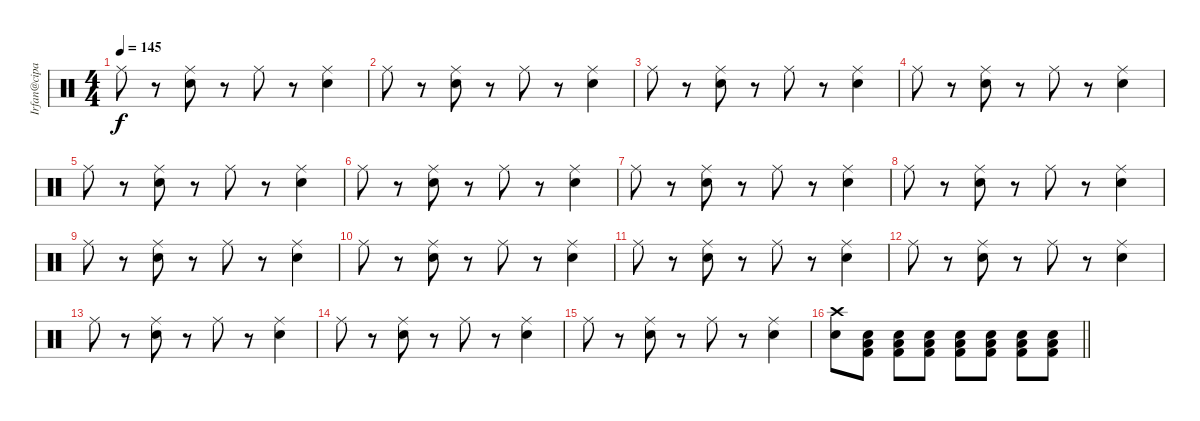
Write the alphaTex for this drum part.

\track ("Irfan@cipan 2" "Irfan@cipa") {instrument percussion}
\staff {score}
\articulation defaults
\ts (4 4)
\tempo 145
\clef neutral
\ks c "Ride (middle)".8{dy f}
r.8 ("Ride (middle)" "Electric Snare (hit)").8 r.8 "Ride (middle)".8 r.8 ("Ride (middle)" "Electric Snare (hit)").4 |
"Ride (middle)".8 r.8 ("Ride (middle)" "Electric Snare (hit)").8 r.8 "Ride (middle)".8 r.8 ("Ride (middle)" "Electric Snare (hit)").4 |
"Ride (middle)".8 r.8 ("Ride (middle)" "Electric Snare (hit)").8 r.8 "Ride (middle)".8 r.8 ("Ride (middle)" "Electric Snare (hit)").4 |
"Ride (middle)".8 r.8 ("Ride (middle)" "Electric Snare (hit)").8 r.8 "Ride (middle)".8 r.8 ("Ride (middle)" "Electric Snare (hit)").4 |
"Ride (middle)".8 r.8 ("Ride (middle)" "Electric Snare (hit)").8 r.8 "Ride (middle)".8 r.8 ("Ride (middle)" "Electric Snare (hit)").4 |
"Ride (middle)".8 r.8 ("Ride (middle)" "Electric Snare (hit)").8 r.8 "Ride (middle)".8 r.8 ("Ride (middle)" "Electric Snare (hit)").4 |
"Ride (middle)".8 r.8 ("Ride (middle)" "Electric Snare (hit)").8 r.8 "Ride (middle)".8 r.8 ("Ride (middle)" "Electric Snare (hit)").4 |
"Ride (middle)".8 r.8 ("Ride (middle)" "Electric Snare (hit)").8 r.8 "Ride (middle)".8 r.8 ("Ride (middle)" "Electric Snare (hit)").4 |
"Ride (middle)".8 r.8 ("Ride (middle)" "Electric Snare (hit)").8 r.8 "Ride (middle)".8 r.8 ("Ride (middle)" "Electric Snare (hit)").4 |
"Ride (middle)".8 r.8 ("Ride (middle)" "Electric Snare (hit)").8 r.8 "Ride (middle)".8 r.8 ("Ride (middle)" "Electric Snare (hit)").4 |
"Ride (middle)".8 r.8 ("Ride (middle)" "Electric Snare (hit)").8 r.8 "Ride (middle)".8 r.8 ("Ride (middle)" "Electric Snare (hit)").4 |
"Ride (middle)".8 r.8 ("Ride (middle)" "Electric Snare (hit)").8 r.8 "Ride (middle)".8 r.8 ("Ride (middle)" "Electric Snare (hit)").4 |
"Ride (middle)".8 r.8 ("Ride (middle)" "Electric Snare (hit)").8 r.8 "Ride (middle)".8 r.8 ("Ride (middle)" "Electric Snare (hit)").4 |
"Ride (middle)".8 r.8 ("Ride (middle)" "Electric Snare (hit)").8 r.8 "Ride (middle)".8 r.8 ("Ride (middle)" "Electric Snare (hit)").4 |
"Ride (middle)".8 r.8 ("Ride (middle)" "Electric Snare (hit)").8 r.8 "Ride (middle)".8 r.8 ("Ride (middle)" "Electric Snare (hit)").4 |
\barLineRight lightlight
("Crash high (hit)" "Electric Snare (hit)").8 ("Kick (hit) 2" "Low Floor Tom (hit)" "Electric Snare (hit)").8 ("Kick (hit) 2" "Low Floor Tom (hit)" "Electric Snare (hit)").8 ("Kick (hit) 2" "Low Floor Tom (hit)" "Electric Snare (hit)").8 ("Kick (hit) 2" "Low Floor Tom (hit)" "Electric Snare (hit)").8 ("Kick (hit) 2" "Low Floor Tom (hit)" "Electric Snare (hit)").8 ("Kick (hit) 2" "Low Floor Tom (hit)" "Electric Snare (hit)").8 ("Kick (hit) 2" "Low Floor Tom (hit)" "Electric Snare (hit)").8
